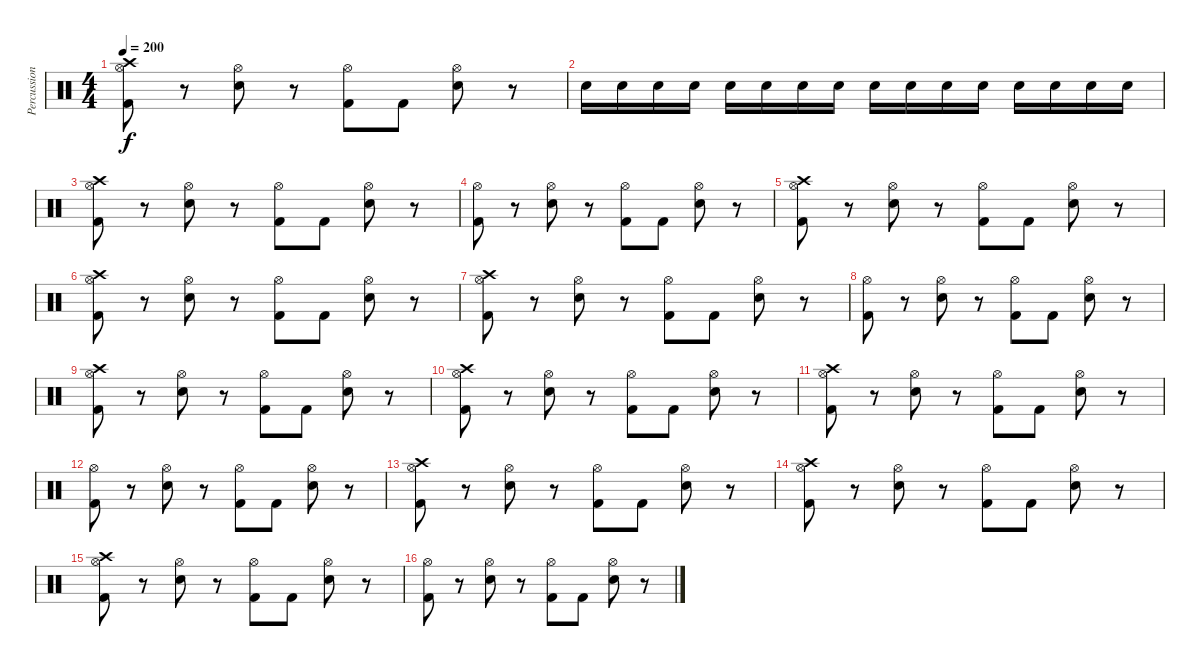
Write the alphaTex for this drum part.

\track ("Percussioni" "Percussion") {instrument percussion}
\staff {score}
\articulation defaults
\ts (4 4)
\tempo 200
\clef neutral
\ks c
("Crash high (hit)" "Kick (hit) 2" "Hi-Hat (open)").8{dy f} r.8 ("Snare (hit) 2" "Hi-Hat (open)").8 r.8 ("Kick (hit) 2" "Hi-Hat (open)").8 "Kick (hit) 2".8 ("Snare (hit) 2" "Hi-Hat (open)").8 r.8 |
"Snare (hit) 2".16 "Snare (hit) 2".16 "Snare (hit) 2".16 "Snare (hit) 2".16 "Snare (hit) 2".16 "Snare (hit) 2".16 "Snare (hit) 2".16 "Snare (hit) 2".16 "Snare (hit) 2".16 "Snare (hit) 2".16 "Snare (hit) 2".16 "Snare (hit) 2".16 "Snare (hit) 2".16 "Snare (hit) 2".16 "Snare (hit) 2".16 "Snare (hit) 2".16 |
("Crash high (hit)" "Kick (hit) 2" "Hi-Hat (open)").8 r.8 ("Snare (hit) 2" "Hi-Hat (open)").8 r.8 ("Kick (hit) 2" "Hi-Hat (open)").8 "Kick (hit) 2".8 ("Snare (hit) 2" "Hi-Hat (open)").8 r.8 |
("Kick (hit) 2" "Hi-Hat (open)").8 r.8 ("Snare (hit) 2" "Hi-Hat (open)").8 r.8 ("Kick (hit) 2" "Hi-Hat (open)").8 "Kick (hit) 2".8 ("Snare (hit) 2" "Hi-Hat (open)").8 r.8 |
("Crash high (hit)" "Kick (hit) 2" "Hi-Hat (open)").8 r.8 ("Snare (hit) 2" "Hi-Hat (open)").8 r.8 ("Kick (hit) 2" "Hi-Hat (open)").8 "Kick (hit) 2".8 ("Snare (hit) 2" "Hi-Hat (open)").8 r.8 |
("Crash high (hit)" "Kick (hit) 2" "Hi-Hat (open)").8 r.8 ("Snare (hit) 2" "Hi-Hat (open)").8 r.8 ("Kick (hit) 2" "Hi-Hat (open)").8 "Kick (hit) 2".8 ("Snare (hit) 2" "Hi-Hat (open)").8 r.8 |
("Crash high (hit)" "Kick (hit) 2" "Hi-Hat (open)").8 r.8 ("Snare (hit) 2" "Hi-Hat (open)").8 r.8 ("Kick (hit) 2" "Hi-Hat (open)").8 "Kick (hit) 2".8 ("Snare (hit) 2" "Hi-Hat (open)").8 r.8 |
("Kick (hit) 2" "Hi-Hat (open)").8 r.8 ("Snare (hit) 2" "Hi-Hat (open)").8 r.8 ("Kick (hit) 2" "Hi-Hat (open)").8 "Kick (hit) 2".8 ("Snare (hit) 2" "Hi-Hat (open)").8 r.8 |
("Crash high (hit)" "Kick (hit) 2" "Hi-Hat (open)").8 r.8 ("Snare (hit) 2" "Hi-Hat (open)").8 r.8 ("Kick (hit) 2" "Hi-Hat (open)").8 "Kick (hit) 2".8 ("Snare (hit) 2" "Hi-Hat (open)").8 r.8 |
("Crash high (hit)" "Kick (hit) 2" "Hi-Hat (open)").8 r.8 ("Snare (hit) 2" "Hi-Hat (open)").8 r.8 ("Kick (hit) 2" "Hi-Hat (open)").8 "Kick (hit) 2".8 ("Snare (hit) 2" "Hi-Hat (open)").8 r.8 |
("Crash high (hit)" "Kick (hit) 2" "Hi-Hat (open)").8 r.8 ("Snare (hit) 2" "Hi-Hat (open)").8 r.8 ("Kick (hit) 2" "Hi-Hat (open)").8 "Kick (hit) 2".8 ("Snare (hit) 2" "Hi-Hat (open)").8 r.8 |
("Kick (hit) 2" "Hi-Hat (open)").8 r.8 ("Snare (hit) 2" "Hi-Hat (open)").8 r.8 ("Kick (hit) 2" "Hi-Hat (open)").8 "Kick (hit) 2".8 ("Snare (hit) 2" "Hi-Hat (open)").8 r.8 |
("Crash high (hit)" "Kick (hit) 2" "Hi-Hat (open)").8 r.8 ("Snare (hit) 2" "Hi-Hat (open)").8 r.8 ("Kick (hit) 2" "Hi-Hat (open)").8 "Kick (hit) 2".8 ("Snare (hit) 2" "Hi-Hat (open)").8 r.8 |
("Crash high (hit)" "Kick (hit) 2" "Hi-Hat (open)").8 r.8 ("Snare (hit) 2" "Hi-Hat (open)").8 r.8 ("Kick (hit) 2" "Hi-Hat (open)").8 "Kick (hit) 2".8 ("Snare (hit) 2" "Hi-Hat (open)").8 r.8 |
("Crash high (hit)" "Kick (hit) 2" "Hi-Hat (open)").8 r.8 ("Snare (hit) 2" "Hi-Hat (open)").8 r.8 ("Kick (hit) 2" "Hi-Hat (open)").8 "Kick (hit) 2".8 ("Snare (hit) 2" "Hi-Hat (open)").8 r.8 |
("Kick (hit) 2" "Hi-Hat (open)").8 r.8 ("Snare (hit) 2" "Hi-Hat (open)").8 r.8 ("Kick (hit) 2" "Hi-Hat (open)").8 "Kick (hit) 2".8 ("Snare (hit) 2" "Hi-Hat (open)").8 r.8
